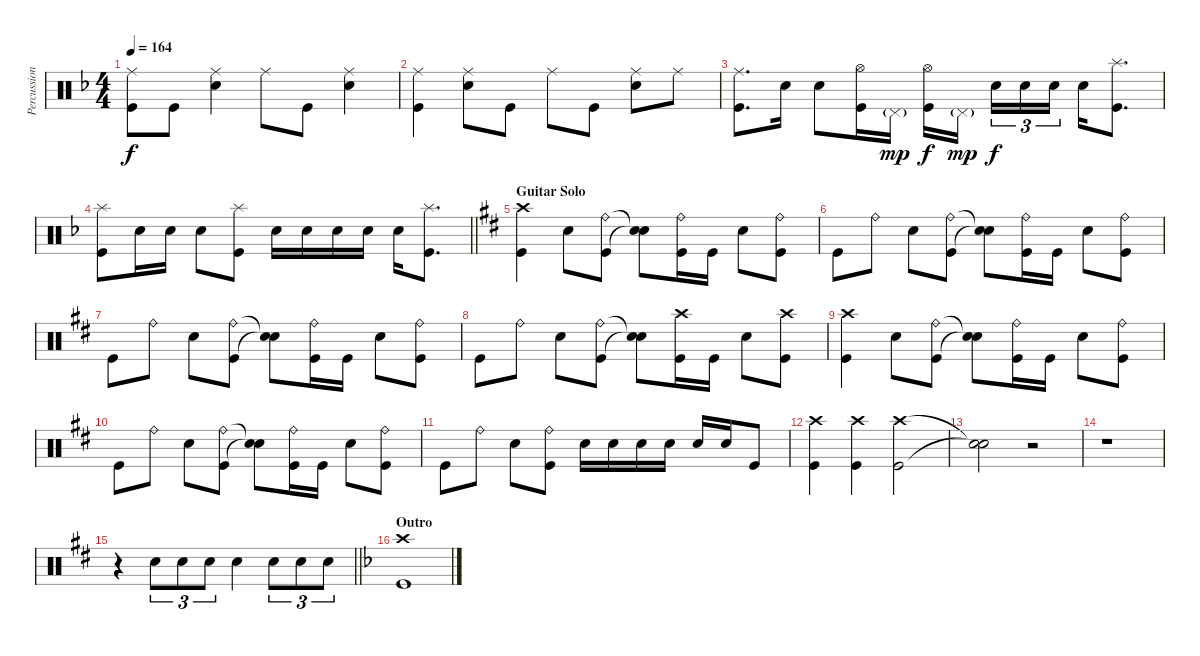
\track ("Percussions" "Percussion") {instrument percussion}
\staff {score}
\articulation defaults
\ts (4 4)
\tempo 164
\clef neutral
\ks dminor
("Ride (middle)" "Kick (hit)").8{dy f} "Kick (hit)".8 ("Ride (middle)" "Electric Snare (hit)").4 "Ride (middle)".8 "Kick (hit)".8 ("Ride (middle)" "Electric Snare (hit)").4 |
("Ride (middle)" "Kick (hit)").4 ("Ride (middle)" "Electric Snare (hit)").8 "Kick (hit)".8 "Ride (middle)".8 "Kick (hit)".8 ("Ride (middle)" "Electric Snare (hit)").8 "Ride (middle)".8 |
("Ride (middle)" "Kick (hit)").8{d} "Electric Snare (hit)".16 "Electric Snare (hit)".8 ("Hi-Hat (open)" "Kick (hit)").16 "Pedal Hi-Hat (hit)"{g}.16{dy mp} ("Hi-Hat (open)" "Kick (hit)").16{dy f} "Pedal Hi-Hat (hit)"{g}.16{dy mp beam splitsecondary} "Electric Snare (hit)".16{tu (3 2) dy f} "Electric Snare (hit)".16{tu (3 2)} "Electric Snare (hit)".16{tu (3 2)} "Electric Snare (hit)".16 ("Splash (hit)" "Kick (hit)").8{d} |
\barLineRight lightlight
("Splash (hit)" "Kick (hit)").8 "Electric Snare (hit)".16 "Electric Snare (hit)".16 "Electric Snare (hit)".8 ("Splash (hit)" "Kick (hit)").8 "Electric Snare (hit)".16 "Electric Snare (hit)".16 "Electric Snare (hit)".16 "Electric Snare (hit)".16 "Electric Snare (hit)".16 ("Splash (hit)" "Kick (hit)").8{d} |
\section ("" "Guitar Solo")
\ks bminor
("Crash high (hit)" "Kick (hit)").4 "Electric Snare (hit)".8 ("Ride (bell)" "Kick (hit)").8 ("Snare (hit)"{t} "Snare (hit)"{t}).8 ("Ride (bell)" "Kick (hit)").16 "Kick (hit)".16 "Electric Snare (hit)".8 ("Ride (bell)" "Kick (hit)").8 |
"Kick (hit)".8 "Ride (bell)".8 "Electric Snare (hit)".8 ("Ride (bell)" "Kick (hit)").8 ("Snare (hit)"{t} "Snare (hit)"{t}).8 ("Ride (bell)" "Kick (hit)").16 "Kick (hit)".16 "Electric Snare (hit)".8 ("Ride (bell)" "Kick (hit)").8 |
"Kick (hit)".8 "Ride (bell)".8 "Electric Snare (hit)".8 ("Ride (bell)" "Kick (hit)").8 ("Snare (hit)"{t} "Snare (hit)"{t}).8 ("Ride (bell)" "Kick (hit)").16 "Kick (hit)".16 "Electric Snare (hit)".8 ("Ride (bell)" "Kick (hit)").8 |
"Kick (hit)".8 "Ride (bell)".8 "Electric Snare (hit)".8 ("Ride (bell)" "Kick (hit)").8 ("Snare (hit)"{t} "Snare (hit)"{t}).8 ("Crash high (hit)" "Kick (hit)").16 "Kick (hit)".16 "Electric Snare (hit)".8 ("Crash high (hit)" "Kick (hit)").8 |
("Crash high (hit)" "Kick (hit)").4 "Electric Snare (hit)".8 ("Ride (bell)" "Kick (hit)").8 ("Snare (hit)"{t} "Snare (hit)"{t}).8 ("Ride (bell)" "Kick (hit)").16 "Kick (hit)".16 "Electric Snare (hit)".8 ("Ride (bell)" "Kick (hit)").8 |
"Kick (hit)".8 "Ride (bell)".8 "Electric Snare (hit)".8 ("Ride (bell)" "Kick (hit)").8 ("Snare (hit)"{t} "Snare (hit)"{t}).8 ("Ride (bell)" "Kick (hit)").16 "Kick (hit)".16 "Electric Snare (hit)".8 ("Ride (bell)" "Kick (hit)").8 |
"Kick (hit)".8 "Ride (bell)".8 "Electric Snare (hit)".8 ("Ride (bell)" "Kick (hit)").8 "Electric Snare (hit)".16 "Electric Snare (hit)".16 "Electric Snare (hit)".16 "Electric Snare (hit)".16 "Electric Snare (hit)".16 "Electric Snare (hit)".16 "Kick (hit)".8 |
("Crash high (hit)" "Kick (hit)").4 ("Crash high (hit)" "Kick (hit)").4 ("Crash high (hit)" "Kick (hit)").2 |
("Snare (hit)"{t} "Snare (hit)"{t}).2 r.2 |
r.1 |
\barLineRight lightlight
r.4 "Electric Snare (hit)".8{tu (3 2)} "Electric Snare (hit)".8{tu (3 2)} "Electric Snare (hit)".8{tu (3 2)} "Electric Snare (hit)".4 "Electric Snare (hit)".8{tu (3 2)} "Electric Snare (hit)".8{tu (3 2)} "Electric Snare (hit)".8{tu (3 2)} |
\section ("" "Outro")
\ks dminor
("Crash high (hit)" "Kick (hit)").1
